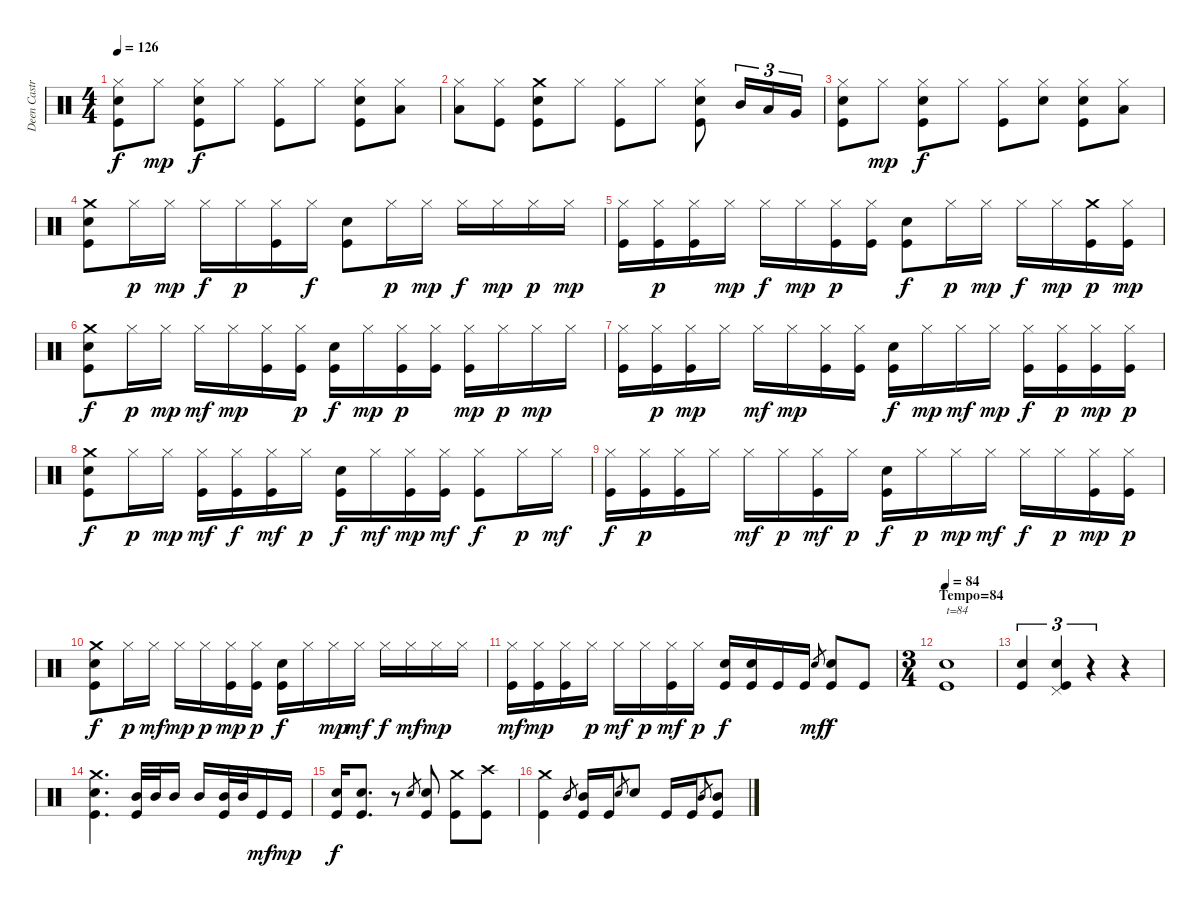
\track ("Deen Castronovo" "Deen Castr") {instrument percussion}
\staff {score}
\articulation defaults
\ts (4 4)
\tempo 126
\clef neutral
\ks c
("Hi-Hat (closed)" "Snare (hit) 2" "Kick (hit)").8{dy f} "Hi-Hat (closed)".8{dy mp} ("Hi-Hat (closed)" "Snare (hit) 2" "Kick (hit)").8{dy f} "Hi-Hat (closed)".8 ("Hi-Hat (closed)" "Kick (hit)").8 "Hi-Hat (closed)".8 ("Hi-Hat (closed)" "Snare (hit) 2" "Kick (hit)").8 ("Hi-Hat (closed)" "Low Tom (hit)").8 |
("Hi-Hat (closed)" "Low Tom (hit)").8 ("Hi-Hat (closed)" "Kick (hit)").8 ("Crash medium (hit)" "Snare (hit) 2" "Kick (hit)").8 "Hi-Hat (closed)".8 ("Hi-Hat (closed)" "Kick (hit)").8 "Hi-Hat (closed)".8 ("Hi-Hat (closed)" "Snare (hit) 2" "Kick (hit)").8 "Mid Tom (hit)".16{tu (3 2)} "Low Tom (hit)".16{tu (3 2)} "Very Low Tom (hit)".16{tu (3 2)} |
("Hi-Hat (closed)" "Snare (hit) 2" "Kick (hit)").8 "Hi-Hat (closed)".8{dy mp} ("Hi-Hat (closed)" "Snare (hit) 2" "Kick (hit)").8{dy f} "Hi-Hat (closed)".8 ("Hi-Hat (closed)" "Kick (hit)").8 ("Hi-Hat (closed)" "Snare (hit) 2").8 ("Hi-Hat (closed)" "Snare (hit) 2" "Kick (hit)").8 ("Hi-Hat (closed)" "Low Tom (hit)").8 |
("Crash medium (hit)" "Snare (hit) 2" "Kick (hit)").8 "Hi-Hat (closed)".16{dy p} "Hi-Hat (closed)".16{dy mp} "Hi-Hat (closed)".16{dy f} "Hi-Hat (closed)".16{dy p} ("Hi-Hat (closed)" "Kick (hit)").16 "Hi-Hat (closed)".16{dy f} ("Snare (hit) 2" "Kick (hit)").8 "Hi-Hat (closed)".16{dy p} "Hi-Hat (closed)".16{dy mp} "Hi-Hat (closed)".16{dy f} "Hi-Hat (closed)".16{dy mp} "Hi-Hat (closed)".16{dy p} "Hi-Hat (closed)".16{dy mp} |
("Hi-Hat (closed)" "Kick (hit)").16 ("Hi-Hat (closed)" "Kick (hit)").16{dy p} ("Hi-Hat (closed)" "Kick (hit)").16 "Hi-Hat (closed)".16{dy mp} "Hi-Hat (closed)".16{dy f} "Hi-Hat (closed)".16{dy mp} ("Hi-Hat (closed)" "Kick (hit)").16{dy p} ("Hi-Hat (closed)" "Kick (hit)").16 ("Snare (hit) 2" "Kick (hit)").8{dy f} "Hi-Hat (closed)".16{dy p} "Hi-Hat (closed)".16{dy mp} "Hi-Hat (closed)".16{dy f} "Hi-Hat (closed)".16{dy mp} ("Crash medium (hit)" "Kick (hit)").16{dy p} ("Hi-Hat (closed)" "Kick (hit)").16{dy mp} |
("Crash medium (hit)" "Snare (hit) 2" "Kick (hit)").8{dy f} "Hi-Hat (closed)".16{dy p} "Hi-Hat (closed)".16{dy mp} "Hi-Hat (closed)".16{dy mf} "Hi-Hat (closed)".16{dy mp} ("Hi-Hat (closed)" "Kick (hit)").16 ("Hi-Hat (closed)" "Kick (hit)").16{dy p} ("Snare (hit) 2" "Kick (hit)").16{dy f} "Hi-Hat (closed)".16{dy mp} ("Hi-Hat (closed)" "Kick (hit)").16{dy p} ("Hi-Hat (closed)" "Kick (hit)").16 ("Hi-Hat (closed)" "Kick (hit)").16{dy mp} "Hi-Hat (closed)".16{dy p} "Hi-Hat (closed)".16{dy mp} "Hi-Hat (closed)".16 |
("Hi-Hat (closed)" "Kick (hit)").16 ("Hi-Hat (closed)" "Kick (hit)").16{dy p} ("Hi-Hat (closed)" "Kick (hit)").16{dy mp} "Hi-Hat (closed)".16 "Hi-Hat (closed)".16{dy mf} "Hi-Hat (closed)".16{dy mp} ("Hi-Hat (closed)" "Kick (hit)").16 ("Hi-Hat (closed)" "Kick (hit)").16 ("Snare (hit) 2" "Kick (hit)").16{dy f} "Hi-Hat (closed)".16{dy mp} "Hi-Hat (closed)".16{dy mf} "Hi-Hat (closed)".16{dy mp} ("Hi-Hat (closed)" "Kick (hit)").16{dy f} ("Hi-Hat (closed)" "Kick (hit)").16{dy p} ("Hi-Hat (closed)" "Kick (hit)").16{dy mp} ("Hi-Hat (closed)" "Kick (hit)").16{dy p} |
("Crash medium (hit)" "Snare (hit) 2" "Kick (hit)").8{dy f} "Hi-Hat (closed)".16{dy p} "Hi-Hat (closed)".16{dy mp} ("Hi-Hat (closed)" "Kick (hit)").16{dy mf} ("Hi-Hat (closed)" "Kick (hit)").16{dy f} ("Hi-Hat (closed)" "Kick (hit)").16{dy mf} "Hi-Hat (closed)".16{dy p} ("Snare (hit) 2" "Kick (hit)").16{dy f} "Hi-Hat (closed)".16{dy mf} ("Hi-Hat (closed)" "Kick (hit)").16{dy mp} ("Hi-Hat (closed)" "Kick (hit)").16{dy mf} ("Hi-Hat (closed)" "Kick (hit)").8{dy f} "Hi-Hat (closed)".16{dy p} "Hi-Hat (closed)".16{dy mf} |
("Hi-Hat (closed)" "Kick (hit)").16{dy f} ("Hi-Hat (closed)" "Kick (hit)").16{dy p} ("Hi-Hat (closed)" "Kick (hit)").16 "Hi-Hat (closed)".16 "Hi-Hat (closed)".16{dy mf} "Hi-Hat (closed)".16{dy p} ("Hi-Hat (closed)" "Kick (hit)").16{dy mf} "Hi-Hat (closed)".16{dy p} ("Snare (hit) 2" "Kick (hit)").16{dy f} "Hi-Hat (closed)".16{dy p} "Hi-Hat (closed)".16{dy mp} "Hi-Hat (closed)".16{dy mf} "Hi-Hat (closed)".16{dy f} "Hi-Hat (closed)".16{dy p} ("Hi-Hat (closed)" "Kick (hit)").16{dy mp} ("Hi-Hat (closed)" "Kick (hit)").16{dy p} |
("Crash medium (hit)" "Snare (hit) 2" "Kick (hit)").8{dy f} "Hi-Hat (closed)".16{dy p} "Hi-Hat (closed)".16{dy mf} "Hi-Hat (closed)".16{dy mp} "Hi-Hat (closed)".16{dy p} ("Hi-Hat (closed)" "Kick (hit)").16{dy mp} ("Hi-Hat (closed)" "Kick (hit)").16{dy p} ("Snare (hit) 2" "Kick (hit)").16{dy f} "Hi-Hat (closed)".16 "Hi-Hat (closed)".16{dy mp} "Hi-Hat (closed)".16{dy mf} "Hi-Hat (closed)".16{dy f} "Hi-Hat (closed)".16{dy mf} "Hi-Hat (closed)".16{dy mp} "Hi-Hat (closed)".16 |
("Hi-Hat (closed)" "Kick (hit)").16{dy mf} ("Hi-Hat (closed)" "Kick (hit)").16{dy mp} ("Hi-Hat (closed)" "Kick (hit)").16 "Hi-Hat (closed)".16{dy p} "Hi-Hat (closed)".16{dy mf} "Hi-Hat (closed)".16{dy p} ("Hi-Hat (closed)" "Kick (hit)").16{dy mf} "Hi-Hat (closed)".16{dy p} ("Snare (hit) 2" "Kick (hit)").16{dy f} ("Snare (hit) 2" "Kick (hit)").16 "Kick (hit)".16 "Kick (hit)".16 "Snare (hit) 2".8{gr dy mf} ("Snare (hit) 2" "Kick (hit)").8{dy f} "Kick (hit)".8 |
\ts (3 4)
\section ("" "Tempo=84")
\tempo 84
("Snare (hit) 2" "Kick (hit)").1{txt "t=84"} |
("Snare (hit) 2" "Kick (hit)").4{tu (3 2)} ("Pedal Hi-Hat (hit)" "Snare (hit) 2" "Kick (hit)").4{tu (3 2)} r.4{tu (3 2)} r.4 |
("Crash medium (hit)" "Snare (hit) 2" "Kick (hit)").4{d} ("Mid Tom (hit)" "Kick (hit)").32 "Mid Tom (hit)".32 "Mid Tom (hit)".16 "Mid Tom (hit)".16 ("Mid Tom (hit)" "Kick (hit)").32 "Mid Tom (hit)".32 "Kick (hit)".16{dy mf} "Kick (hit)".16{dy mp} |
("Snare (hit) 2" "Kick (hit)").16{dy f} ("Snare (hit) 2" "Kick (hit)").8{d} r.8 "Snare (hit) 2".8{gr} ("Snare (hit) 2" "Kick (hit)").8 ("Crash medium (hit)" "Kick (hit)").8 ("Crash high (hit)" "Kick (hit)").8 |
("Crash medium (hit)" "Kick (hit)").4 "Mid Tom (hit)".8{gr} ("Mid Tom (hit)" "Kick (hit)").16 "Kick (hit)".16 "Snare (hit) 2".8{gr} "Snare (hit) 2".8 "Kick (hit)".16 "Kick (hit)".16 "Mid Tom (hit)".8{gr} ("Mid Tom (hit)" "Kick (hit)").8
